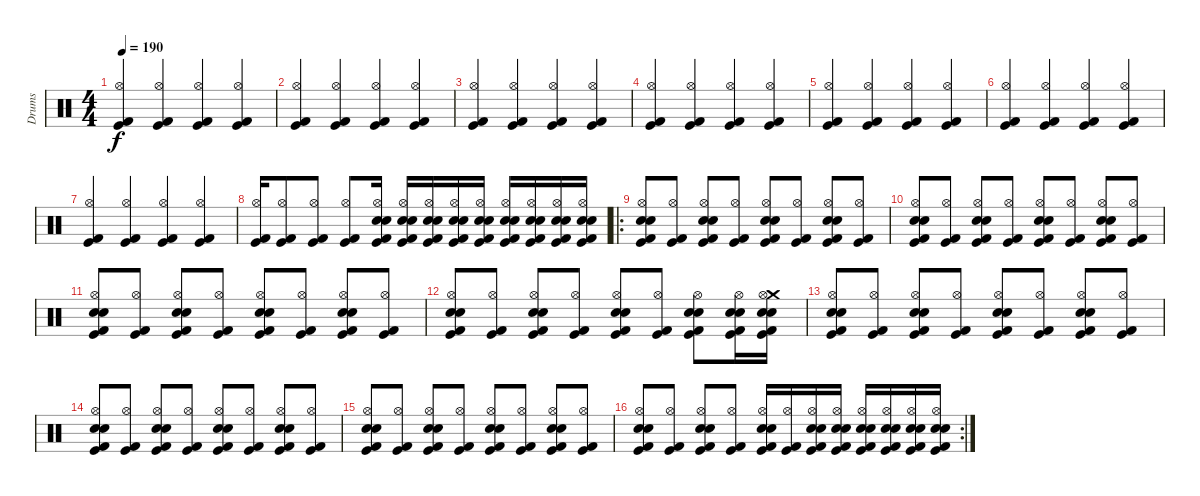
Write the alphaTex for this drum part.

\track ("Drums" "Drums") {instrument percussion}
\staff {score}
\articulation defaults
\ts (4 4)
\tempo 190
\clef neutral
\ks c
("Kick (hit) 2" "Hi-Hat (open)" "Kick (hit)").4{dy f} ("Kick (hit) 2" "Hi-Hat (open)" "Kick (hit)").4 ("Kick (hit) 2" "Hi-Hat (open)" "Kick (hit)").4 ("Kick (hit) 2" "Hi-Hat (open)" "Kick (hit)").4 |
("Kick (hit) 2" "Hi-Hat (open)" "Kick (hit)").4 ("Kick (hit) 2" "Hi-Hat (open)" "Kick (hit)").4 ("Kick (hit) 2" "Hi-Hat (open)" "Kick (hit)").4 ("Kick (hit) 2" "Hi-Hat (open)" "Kick (hit)").4 |
("Kick (hit) 2" "Hi-Hat (open)" "Kick (hit)").4 ("Kick (hit) 2" "Hi-Hat (open)" "Kick (hit)").4 ("Kick (hit) 2" "Hi-Hat (open)" "Kick (hit)").4 ("Kick (hit) 2" "Hi-Hat (open)" "Kick (hit)").4 |
("Kick (hit) 2" "Hi-Hat (open)" "Kick (hit)").4 ("Kick (hit) 2" "Hi-Hat (open)" "Kick (hit)").4 ("Kick (hit) 2" "Hi-Hat (open)" "Kick (hit)").4 ("Kick (hit) 2" "Hi-Hat (open)" "Kick (hit)").4 |
("Kick (hit) 2" "Hi-Hat (open)" "Kick (hit)").4 ("Kick (hit) 2" "Hi-Hat (open)" "Kick (hit)").4 ("Kick (hit) 2" "Hi-Hat (open)" "Kick (hit)").4 ("Kick (hit) 2" "Hi-Hat (open)" "Kick (hit)").4 |
("Kick (hit) 2" "Hi-Hat (open)" "Kick (hit)").4 ("Kick (hit) 2" "Hi-Hat (open)" "Kick (hit)").4 ("Kick (hit) 2" "Hi-Hat (open)" "Kick (hit)").4 ("Kick (hit) 2" "Hi-Hat (open)" "Kick (hit)").4 |
("Kick (hit) 2" "Hi-Hat (open)" "Kick (hit)").4 ("Kick (hit) 2" "Hi-Hat (open)" "Kick (hit)").4 ("Kick (hit) 2" "Hi-Hat (open)" "Kick (hit)").4 ("Kick (hit) 2" "Hi-Hat (open)" "Kick (hit)").4 |
("Hi-Hat (open)" "Kick (hit) 2" "Kick (hit)").16 ("Hi-Hat (open)" "Kick (hit) 2" "Kick (hit)").8 ("Hi-Hat (open)" "Kick (hit) 2" "Kick (hit)").8 ("Hi-Hat (open)" "Kick (hit) 2" "Kick (hit)").8 ("Hi-Hat (open)" "Kick (hit) 2" "Snare (hit) 2" "Electric Snare (hit)" "Kick (hit)").16 ("Hi-Hat (open)" "Kick (hit) 2" "Snare (hit) 2" "Electric Snare (hit)" "Kick (hit)").16 ("Hi-Hat (open)" "Kick (hit) 2" "Snare (hit) 2" "Electric Snare (hit)" "Kick (hit)").16 ("Hi-Hat (open)" "Kick (hit) 2" "Snare (hit) 2" "Electric Snare (hit)" "Kick (hit)").16 ("Hi-Hat (open)" "Kick (hit) 2" "Snare (hit) 2" "Electric Snare (hit)" "Kick (hit)").16 ("Hi-Hat (open)" "Kick (hit) 2" "Snare (hit) 2" "Electric Snare (hit)" "Kick (hit)").16 ("Hi-Hat (open)" "Kick (hit) 2" "Snare (hit) 2" "Electric Snare (hit)" "Kick (hit)").16 ("Hi-Hat (open)" "Kick (hit) 2" "Snare (hit) 2" "Electric Snare (hit)" "Kick (hit)").16 ("Hi-Hat (open)" "Kick (hit) 2" "Snare (hit) 2" "Electric Snare (hit)" "Kick (hit)").16 |
\ro
("Hi-Hat (open)" "Kick (hit) 2" "Snare (hit) 2" "Electric Snare (hit)" "Kick (hit)").8 ("Hi-Hat (open)" "Kick (hit) 2" "Kick (hit)").8 ("Snare (hit) 2" "Hi-Hat (open)" "Electric Snare (hit)" "Kick (hit)" "Kick (hit) 2").8 ("Hi-Hat (open)" "Kick (hit) 2" "Kick (hit)").8 ("Snare (hit) 2" "Hi-Hat (open)" "Electric Snare (hit)" "Kick (hit)" "Kick (hit) 2").8 ("Hi-Hat (open)" "Kick (hit) 2" "Kick (hit)").8 ("Snare (hit) 2" "Hi-Hat (open)" "Electric Snare (hit)" "Kick (hit)" "Kick (hit) 2").8 ("Hi-Hat (open)" "Kick (hit) 2" "Kick (hit)").8 |
("Hi-Hat (open)" "Kick (hit) 2" "Snare (hit) 2" "Electric Snare (hit)" "Kick (hit)").8 ("Hi-Hat (open)" "Kick (hit) 2" "Kick (hit)").8 ("Snare (hit) 2" "Hi-Hat (open)" "Electric Snare (hit)" "Kick (hit)" "Kick (hit) 2").8 ("Hi-Hat (open)" "Kick (hit) 2" "Kick (hit)").8 ("Snare (hit) 2" "Hi-Hat (open)" "Electric Snare (hit)" "Kick (hit)" "Kick (hit) 2").8 ("Hi-Hat (open)" "Kick (hit) 2" "Kick (hit)").8 ("Snare (hit) 2" "Hi-Hat (open)" "Electric Snare (hit)" "Kick (hit)" "Kick (hit) 2").8 ("Hi-Hat (open)" "Kick (hit) 2" "Kick (hit)").8 |
("Hi-Hat (open)" "Kick (hit) 2" "Snare (hit) 2" "Electric Snare (hit)" "Kick (hit)").8 ("Hi-Hat (open)" "Kick (hit) 2" "Kick (hit)").8 ("Snare (hit) 2" "Hi-Hat (open)" "Electric Snare (hit)" "Kick (hit)" "Kick (hit) 2").8 ("Hi-Hat (open)" "Kick (hit) 2" "Kick (hit)").8 ("Snare (hit) 2" "Hi-Hat (open)" "Electric Snare (hit)" "Kick (hit)" "Kick (hit) 2").8 ("Hi-Hat (open)" "Kick (hit) 2" "Kick (hit)").8 ("Snare (hit) 2" "Hi-Hat (open)" "Electric Snare (hit)" "Kick (hit)" "Kick (hit) 2").8 ("Hi-Hat (open)" "Kick (hit) 2" "Kick (hit)").8 |
("Hi-Hat (open)" "Kick (hit) 2" "Snare (hit) 2" "Electric Snare (hit)" "Kick (hit)").8 ("Hi-Hat (open)" "Kick (hit) 2" "Kick (hit)").8 ("Snare (hit) 2" "Hi-Hat (open)" "Electric Snare (hit)" "Kick (hit)" "Kick (hit) 2").8 ("Hi-Hat (open)" "Kick (hit) 2" "Kick (hit)").8 ("Snare (hit) 2" "Hi-Hat (open)" "Electric Snare (hit)" "Kick (hit)" "Kick (hit) 2").8 ("Hi-Hat (open)" "Kick (hit) 2" "Kick (hit)").8 ("Snare (hit) 2" "Hi-Hat (open)" "Electric Snare (hit)" "Kick (hit)" "Kick (hit) 2").8 ("Electric Snare (hit)" "Hi-Hat (open)" "Kick (hit) 2" "Kick (hit)" "Snare (hit) 2").16 ("Crash medium (hit)" "Electric Snare (hit)" "Hi-Hat (open)" "Kick (hit) 2" "Kick (hit)" "Snare (hit) 2").16 |
("Hi-Hat (open)" "Kick (hit) 2" "Snare (hit) 2" "Electric Snare (hit)" "Kick (hit)").8 ("Hi-Hat (open)" "Kick (hit) 2" "Kick (hit)").8 ("Snare (hit) 2" "Hi-Hat (open)" "Electric Snare (hit)" "Kick (hit)" "Kick (hit) 2").8 ("Hi-Hat (open)" "Kick (hit) 2" "Kick (hit)").8 ("Snare (hit) 2" "Hi-Hat (open)" "Electric Snare (hit)" "Kick (hit)" "Kick (hit) 2").8 ("Hi-Hat (open)" "Kick (hit) 2" "Kick (hit)").8 ("Snare (hit) 2" "Hi-Hat (open)" "Electric Snare (hit)" "Kick (hit)" "Kick (hit) 2").8 ("Hi-Hat (open)" "Kick (hit) 2" "Kick (hit)").8 |
("Hi-Hat (open)" "Kick (hit) 2" "Snare (hit) 2" "Electric Snare (hit)" "Kick (hit)").8 ("Hi-Hat (open)" "Kick (hit) 2" "Kick (hit)").8 ("Snare (hit) 2" "Hi-Hat (open)" "Electric Snare (hit)" "Kick (hit)" "Kick (hit) 2").8 ("Hi-Hat (open)" "Kick (hit) 2" "Kick (hit)").8 ("Snare (hit) 2" "Hi-Hat (open)" "Electric Snare (hit)" "Kick (hit)" "Kick (hit) 2").8 ("Hi-Hat (open)" "Kick (hit) 2" "Kick (hit)").8 ("Snare (hit) 2" "Hi-Hat (open)" "Electric Snare (hit)" "Kick (hit)" "Kick (hit) 2").8 ("Hi-Hat (open)" "Kick (hit) 2" "Kick (hit)").8 |
("Hi-Hat (open)" "Kick (hit) 2" "Snare (hit) 2" "Electric Snare (hit)" "Kick (hit)").8 ("Hi-Hat (open)" "Kick (hit) 2" "Kick (hit)").8 ("Snare (hit) 2" "Hi-Hat (open)" "Electric Snare (hit)" "Kick (hit)" "Kick (hit) 2").8 ("Hi-Hat (open)" "Kick (hit) 2" "Kick (hit)").8 ("Snare (hit) 2" "Hi-Hat (open)" "Electric Snare (hit)" "Kick (hit)" "Kick (hit) 2").8 ("Hi-Hat (open)" "Kick (hit) 2" "Kick (hit)").8 ("Snare (hit) 2" "Hi-Hat (open)" "Electric Snare (hit)" "Kick (hit)" "Kick (hit) 2").8 ("Hi-Hat (open)" "Kick (hit) 2" "Kick (hit)").8 |
\rc 2
("Hi-Hat (open)" "Kick (hit) 2" "Snare (hit) 2" "Electric Snare (hit)" "Kick (hit)").8 ("Hi-Hat (open)" "Kick (hit) 2" "Kick (hit)").8 ("Snare (hit) 2" "Hi-Hat (open)" "Electric Snare (hit)" "Kick (hit)" "Kick (hit) 2").8 ("Hi-Hat (open)" "Kick (hit) 2" "Kick (hit)").8 ("Snare (hit) 2" "Hi-Hat (open)" "Electric Snare (hit)" "Kick (hit)" "Kick (hit) 2").16 ("Hi-Hat (open)" "Kick (hit) 2" "Kick (hit)").16 ("Snare (hit) 2" "Hi-Hat (open)" "Electric Snare (hit)" "Kick (hit)" "Kick (hit) 2").16 ("Electric Snare (hit)" "Hi-Hat (open)" "Kick (hit) 2" "Kick (hit)" "Snare (hit) 2").16 ("Electric Snare (hit)" "Hi-Hat (open)" "Kick (hit) 2" "Kick (hit)" "Snare (hit) 2").16 ("Electric Snare (hit)" "Hi-Hat (open)" "Kick (hit) 2" "Kick (hit)" "Snare (hit) 2").16 ("Electric Snare (hit)" "Hi-Hat (open)" "Kick (hit) 2" "Kick (hit)" "Snare (hit) 2").16 ("Electric Snare (hit)" "Hi-Hat (open)" "Kick (hit) 2" "Kick (hit)" "Snare (hit) 2").16
